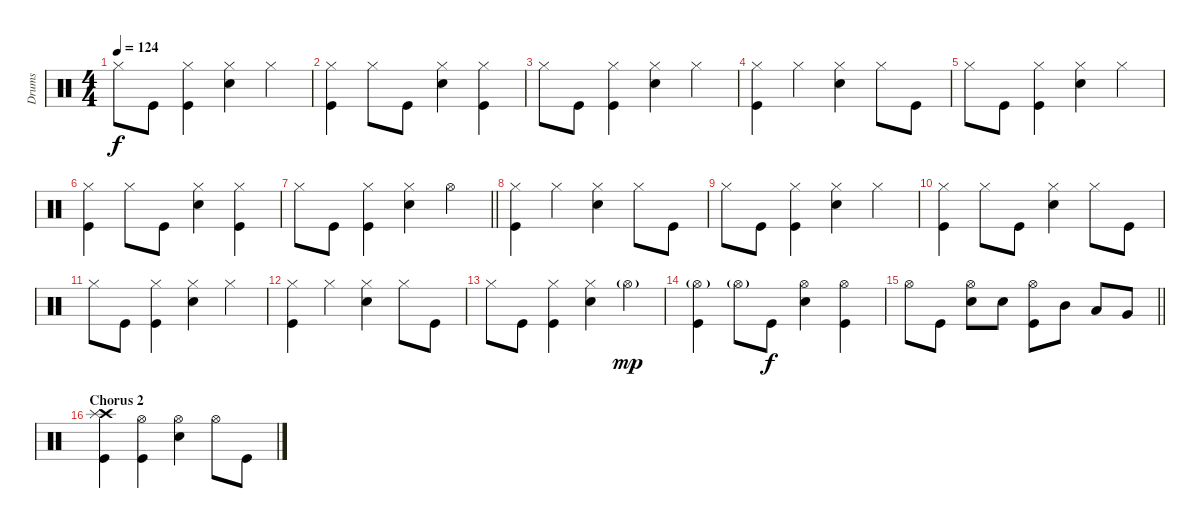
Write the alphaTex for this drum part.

\track ("Drums" "Drums") {instrument percussion}
\staff {score}
\articulation defaults
\ts (4 4)
\tempo 124
\clef neutral
\ks c "Hi-Hat (closed)".8{dy f} "Kick (hit)".8
("Hi-Hat (closed)" "Kick (hit)").4 ("Hi-Hat (closed)" "Snare (hit) 2").4 "Hi-Hat (closed)".4 |
("Hi-Hat (closed)" "Kick (hit)").4 "Hi-Hat (closed)".8 "Kick (hit)".8 ("Hi-Hat (closed)" "Snare (hit) 2").4 ("Hi-Hat (closed)" "Kick (hit)").4 |
"Hi-Hat (closed)".8 "Kick (hit)".8 ("Hi-Hat (closed)" "Kick (hit)").4 ("Hi-Hat (closed)" "Snare (hit) 2").4 "Hi-Hat (closed)".4 |
("Hi-Hat (closed)" "Kick (hit)").4 "Hi-Hat (closed)".4 ("Hi-Hat (closed)" "Snare (hit) 2").4 "Hi-Hat (closed)".8 "Kick (hit)".8 |
"Hi-Hat (closed)".8 "Kick (hit)".8 ("Hi-Hat (closed)" "Kick (hit)").4 ("Hi-Hat (closed)" "Snare (hit) 2").4 "Hi-Hat (closed)".4 |
("Hi-Hat (closed)" "Kick (hit)").4 "Hi-Hat (closed)".8 "Kick (hit)".8 ("Hi-Hat (closed)" "Snare (hit) 2").4 ("Hi-Hat (closed)" "Kick (hit)").4 |
\barLineRight lightlight "Hi-Hat (closed)".8 "Kick (hit)".8
("Hi-Hat (closed)" "Kick (hit)").4 ("Hi-Hat (closed)" "Snare (hit) 2").4 "Hi-Hat (open)".4 |
("Hi-Hat (closed)" "Kick (hit)").4 "Hi-Hat (closed)".4 ("Hi-Hat (closed)" "Snare (hit) 2").4 "Hi-Hat (closed)".8 "Kick (hit)".8 |
"Hi-Hat (closed)".8 "Kick (hit)".8 ("Hi-Hat (closed)" "Kick (hit)").4 ("Hi-Hat (closed)" "Snare (hit) 2").4 "Hi-Hat (closed)".4 |
("Hi-Hat (closed)" "Kick (hit)").4 "Hi-Hat (closed)".8 "Kick (hit)".8 ("Hi-Hat (closed)" "Snare (hit) 2").4 "Hi-Hat (closed)".8 "Kick (hit)".8 |
"Hi-Hat (closed)".8 "Kick (hit)".8 ("Hi-Hat (closed)" "Kick (hit)").4 ("Hi-Hat (closed)" "Snare (hit) 2").4 "Hi-Hat (closed)".4 |
("Hi-Hat (closed)" "Kick (hit)").4 "Hi-Hat (closed)".4 ("Hi-Hat (closed)" "Snare (hit) 2").4 "Hi-Hat (closed)".8 "Kick (hit)".8 |
"Hi-Hat (closed)".8 "Kick (hit)".8 ("Hi-Hat (closed)" "Kick (hit)").4 ("Hi-Hat (closed)" "Snare (hit) 2").4 "Hi-Hat (open)"{g}.4{dy mp} |
("Hi-Hat (open)"{g} "Kick (hit)").4 "Hi-Hat (open)"{g}.8 "Kick (hit)".8{dy f} ("Hi-Hat (open)" "Snare (hit) 2").4 ("Hi-Hat (open)" "Kick (hit)").4 |
\barLineRight lightlight "Hi-Hat (open)".8 "Kick (hit)".8
("Hi-Hat (open)" "Snare (hit) 2").8 "Snare (hit) 2".8 ("Hi-Hat (open)" "Kick (hit)").8 "Mid Tom (hit)".8 "Low Tom (hit)".8 "Very Low Tom (hit)".8 |
\section ("" "Chorus 2")
("Crash high (hit)" "Splash (hit)" "Kick (hit)").4 ("Hi-Hat (open)" "Kick (hit)").4 ("Hi-Hat (open)" "Snare (hit) 2").4 "Hi-Hat (open)".8 "Kick (hit)".8
